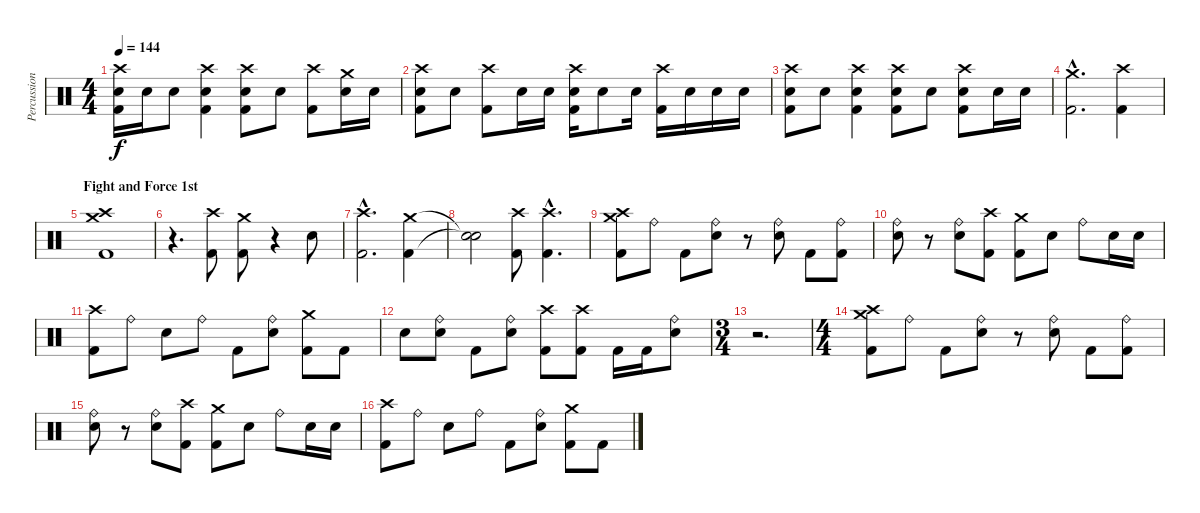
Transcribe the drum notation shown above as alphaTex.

\track ("Percussion" "Percussion") {instrument percussion}
\staff {score}
\articulation defaults
\ts (4 4)
\tempo 144
\clef neutral
\ks c
("Crash high (hit)" "Electric Snare (hit)" "Kick (hit) 2").16{dy f} "Electric Snare (hit)".16 "Electric Snare (hit)".8 ("Crash high (hit)" "Electric Snare (hit)" "Kick (hit) 2").4 ("Crash high (hit)" "Electric Snare (hit)" "Kick (hit) 2").8 "Electric Snare (hit)".8 ("Crash high (hit)" "Kick (hit) 2").8 ("Crash medium (hit)" "Electric Snare (hit)").16 "Electric Snare (hit)".16 |
("Crash high (hit)" "Electric Snare (hit)" "Kick (hit) 2").8 "Electric Snare (hit)".8 ("Crash high (hit)" "Kick (hit) 2").8 "Electric Snare (hit)".16 "Electric Snare (hit)".16 ("Crash high (hit)" "Electric Snare (hit)" "Kick (hit) 2").16 "Electric Snare (hit)".8 "Electric Snare (hit)".16 ("Crash high (hit)" "Kick (hit) 2").16 "Electric Snare (hit)".16 "Electric Snare (hit)".16 "Electric Snare (hit)".16 |
("Crash high (hit)" "Electric Snare (hit)" "Kick (hit) 2").8 "Electric Snare (hit)".8 ("Crash high (hit)" "Electric Snare (hit)" "Kick (hit) 2").4 ("Crash high (hit)" "Electric Snare (hit)" "Kick (hit) 2").8 "Electric Snare (hit)".8 ("Crash high (hit)" "Electric Snare (hit)" "Kick (hit) 2").8 "Electric Snare (hit)".16 "Electric Snare (hit)".16 |
("Crash medium (hit)"{hac} "Kick (hit) 2"{hac}).2{d} ("Crash high (hit)" "Kick (hit) 2").4 |
\section ("" "Fight and Force 1st")
("Crash medium (hit)" "Crash high (hit)" "Kick (hit) 2").1 |
r.4{d} ("Crash high (hit)" "Kick (hit) 2").8 ("Crash medium (hit)" "Kick (hit) 2").8 r.4 "Electric Snare (hit)".8 |
("Crash high (hit)"{hac} "Kick (hit) 2"{hac}).2{d} ("Crash medium (hit)" "Kick (hit) 2").4 |
("Snare (hit)"{t} "Snare (hit)"{t}).2 ("Crash high (hit)" "Kick (hit) 2").8 ("Crash high (hit)"{hac} "Kick (hit) 2"{hac}).4{d} |
("Crash medium (hit)" "Crash high (hit)" "Kick (hit) 2").8 "Ride (bell)".8 "Kick (hit) 2".8 ("Ride (bell)" "Electric Snare (hit)").8 r.8 ("Ride (bell)" "Electric Snare (hit)").8 "Kick (hit) 2".8 ("Ride (bell)" "Kick (hit) 2").8 |
("Ride (bell)" "Electric Snare (hit)").8 r.8 ("Ride (bell)" "Electric Snare (hit)").8 ("Crash high (hit)" "Kick (hit) 2").8 ("Crash medium (hit)" "Kick (hit) 2").8 "Electric Snare (hit)".8 "Ride (bell)".8 "Electric Snare (hit)".16 "Electric Snare (hit)".16 |
("Crash high (hit)" "Kick (hit) 2").8 "Ride (bell)".8 "Electric Snare (hit)".8 "Ride (bell)".8 "Kick (hit) 2".8 ("Ride (bell)" "Electric Snare (hit)").8 ("Crash medium (hit)" "Kick (hit) 2").8 "Kick (hit) 2".8 |
"Electric Snare (hit)".8 ("Ride (bell)" "Electric Snare (hit)").8 "Kick (hit) 2".8 ("Ride (bell)" "Electric Snare (hit)").8 ("Crash high (hit)" "Kick (hit) 2").8 ("Crash high (hit)" "Kick (hit) 2").8 "Kick (hit) 2".16 "Kick (hit) 2".16 ("Ride (bell)" "Electric Snare (hit)").8 |
\ts (3 4)
r.2{d} |
\ts (4 4)
("Crash medium (hit)" "Crash high (hit)" "Kick (hit) 2").8 "Ride (bell)".8 "Kick (hit) 2".8 ("Ride (bell)" "Electric Snare (hit)").8 r.8 ("Ride (bell)" "Electric Snare (hit)").8 "Kick (hit) 2".8 ("Ride (bell)" "Kick (hit) 2").8 |
("Ride (bell)" "Electric Snare (hit)").8 r.8 ("Ride (bell)" "Electric Snare (hit)").8 ("Crash high (hit)" "Kick (hit) 2").8 ("Crash medium (hit)" "Kick (hit) 2").8 "Electric Snare (hit)".8 "Ride (bell)".8 "Electric Snare (hit)".16 "Electric Snare (hit)".16 |
("Crash high (hit)" "Kick (hit) 2").8 "Ride (bell)".8 "Electric Snare (hit)".8 "Ride (bell)".8 "Kick (hit) 2".8 ("Ride (bell)" "Electric Snare (hit)").8 ("Crash medium (hit)" "Kick (hit) 2").8 "Kick (hit) 2".8
